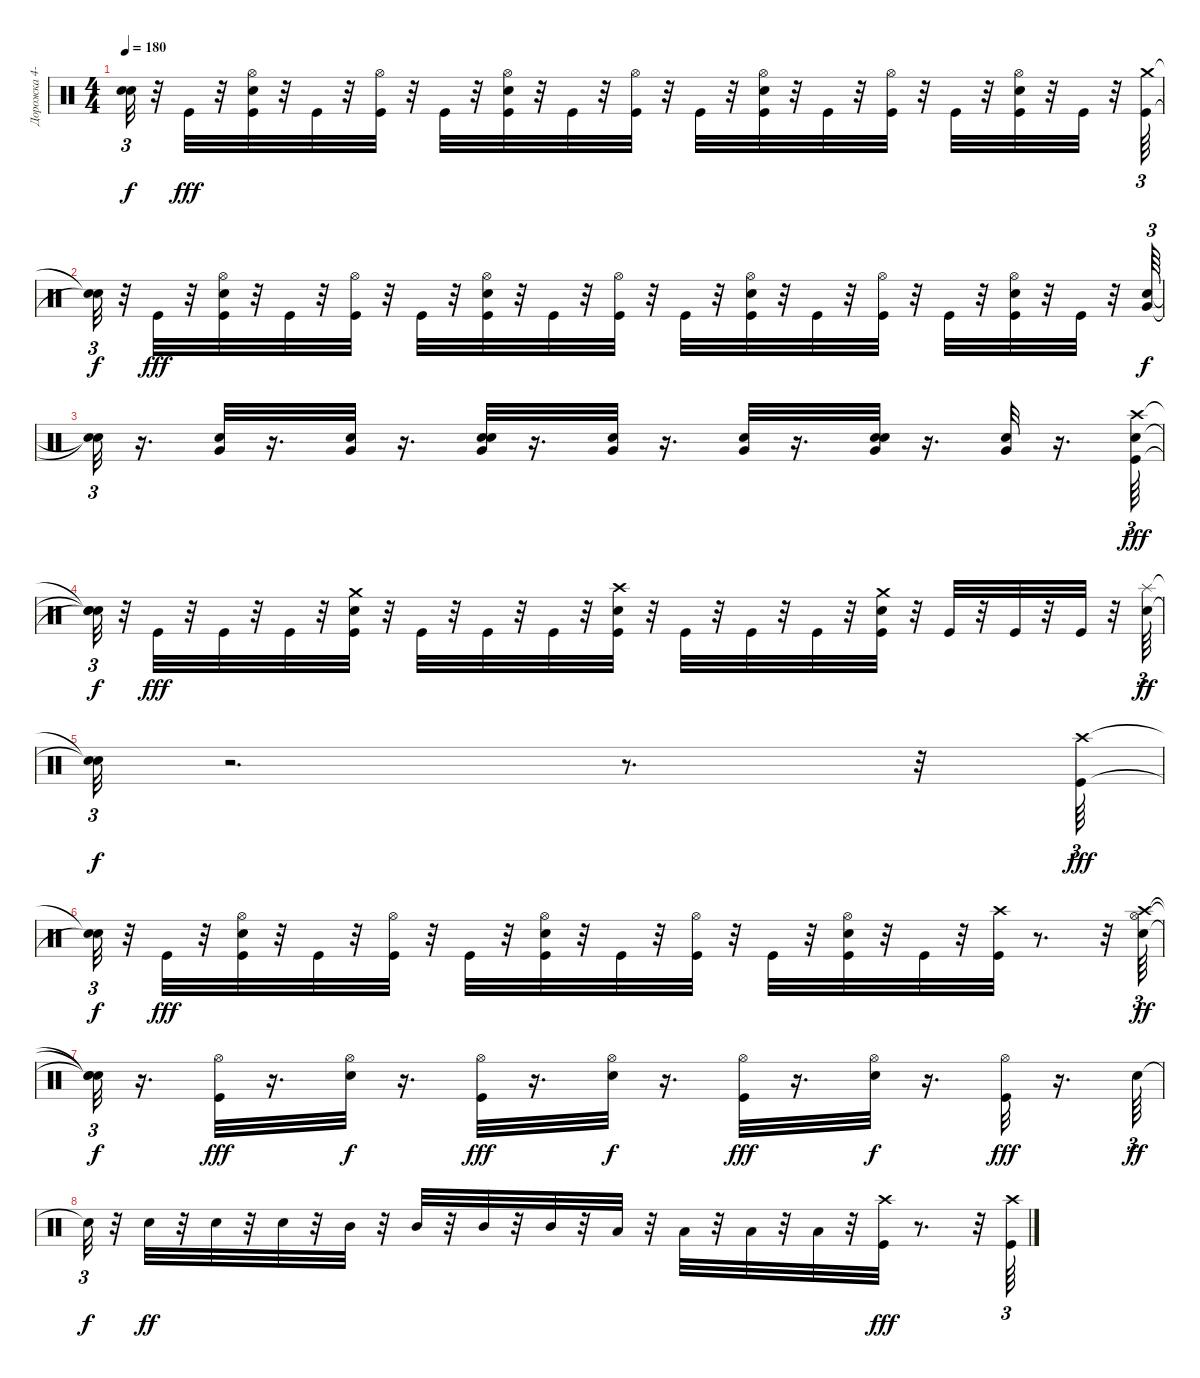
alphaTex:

\track ("Дорожка 4-10-11" "Дорожка 4-") {instrument percussion}
\staff {score}
\articulation defaults
\ts (4 4)
\tempo 180
\clef neutral
\ks c
("Snare (hit)"{t} "Snare (hit)"{t}).32{tu (3 2) dy f} r.32 "Kick (hit)".32{dy fff} r.32 ("Hi-Hat (open)" "Snare (hit) 2" "Kick (hit)").32 r.32 "Kick (hit)".32 r.32 ("Hi-Hat (open)" "Kick (hit)").32 r.32 "Kick (hit)".32 r.32 ("Snare (hit) 2" "Hi-Hat (open)" "Kick (hit)").32 r.32 "Kick (hit)".32 r.32 ("Hi-Hat (open)" "Kick (hit)").32 r.32 "Kick (hit)".32 r.32 ("Hi-Hat (open)" "Snare (hit) 2" "Kick (hit)").32 r.32 "Kick (hit)".32 r.32 ("Hi-Hat (open)" "Kick (hit)").32 r.32 "Kick (hit)".32 r.32 ("Hi-Hat (open)" "Snare (hit) 2" "Kick (hit)").32 r.32 "Kick (hit)".32 r.32 ("Crash medium (hit)" "Kick (hit)").64{tu (3 2)} |
("Snare (hit)"{t} "Snare (hit)"{t}).32{tu (3 2) dy f} r.32 "Kick (hit)".32{dy fff} r.32 ("Hi-Hat (open)" "Snare (hit) 2" "Kick (hit)").32 r.32 "Kick (hit)".32 r.32 ("Hi-Hat (open)" "Kick (hit)").32 r.32 "Kick (hit)".32 r.32 ("Snare (hit) 2" "Hi-Hat (open)" "Kick (hit)").32 r.32 "Kick (hit)".32 r.32 ("Hi-Hat (open)" "Kick (hit)").32 r.32 "Kick (hit)".32 r.32 ("Hi-Hat (open)" "Snare (hit) 2" "Kick (hit)").32 r.32 "Kick (hit)".32 r.32 ("Hi-Hat (open)" "Kick (hit)").32 r.32 "Kick (hit)".32 r.32 ("Hi-Hat (open)" "Snare (hit) 2" "Kick (hit)").32 r.32 "Kick (hit)".32 r.32 ("Very Low Tom (hit)" "Snare (hit) 2").64{tu (3 2) dy f} |
("Snare (hit)"{t} "Snare (hit)"{t}).32{tu (3 2)} r.16{d} ("Very Low Tom (hit)" "Snare (hit) 2").32 r.16{d} ("Very Low Tom (hit)" "Snare (hit) 2").32 r.16{d} ("Very Low Tom (hit)" "Snare (hit) 2" "Snare (hit) 2").32 r.16{d} ("Very Low Tom (hit)" "Snare (hit) 2").32 r.16{d} ("Very Low Tom (hit)" "Snare (hit) 2").32 r.16{d} ("Very Low Tom (hit)" "Snare (hit) 2" "Snare (hit) 2").32 r.16{d} ("Very Low Tom (hit)" "Snare (hit) 2").32 r.16{d} ("Snare (hit) 2" "Crash high (hit)" "Kick (hit)").64{tu (3 2) dy fff} |
("Snare (hit)"{t} "Snare (hit)"{t} "Snare (hit)"{t}).32{tu (3 2) dy f} r.32 "Kick (hit)".32{dy fff} r.32 "Kick (hit)".32 r.32 "Kick (hit)".32 r.32 ("Snare (hit) 2" "Crash medium (hit)" "Kick (hit)").32 r.32 "Kick (hit)".32 r.32 "Kick (hit)".32 r.32 "Kick (hit)".32 r.32 ("Snare (hit) 2" "Crash high (hit)" "Kick (hit)").32 r.32 "Kick (hit)".32 r.32 "Kick (hit)".32 r.32 "Kick (hit)".32 r.32 ("Snare (hit) 2" "Crash medium (hit)" "Kick (hit)").32 r.32 "Kick (hit)".32 r.32 "Kick (hit)".32 r.32 "Kick (hit)".32 r.32 ("Snare (hit) 2" "Splash (hit)").64{tu (3 2) dy ff} |
("Snare (hit)"{t} "Snare (hit)"{t}).32{tu (3 2) dy f} r.2{d} r.8{d} r.32 ("Crash high (hit)" "Kick (hit)").64{tu (3 2) dy fff} |
("Snare (hit)"{t} "Snare (hit)"{t}).32{tu (3 2) dy f} r.32 "Kick (hit)".32{dy fff} r.32 ("Hi-Hat (open)" "Snare (hit) 2" "Kick (hit)").32 r.32 "Kick (hit)".32 r.32 ("Hi-Hat (open)" "Kick (hit)").32 r.32 "Kick (hit)".32 r.32 ("Hi-Hat (open)" "Snare (hit) 2" "Kick (hit)").32 r.32 "Kick (hit)".32 r.32 ("Hi-Hat (open)" "Kick (hit)").32 r.32 "Kick (hit)".32 r.32 ("Hi-Hat (open)" "Snare (hit) 2" "Kick (hit)").32 r.32 "Kick (hit)".32 r.32 ("Crash high (hit)" "Kick (hit)").32 r.8{d} r.32 ("Crash high (hit)" "Hi-Hat (open)" "Snare (hit) 2").64{tu (3 2) dy ff} |
("Snare (hit)"{t} "Snare (hit)"{t} "Snare (hit)"{t}).32{tu (3 2) dy f} r.16{d} ("Hi-Hat (open)" "Kick (hit)").32{dy fff} r.16{d} ("Hi-Hat (open)" "Snare (hit) 2").32{dy f} r.16{d} ("Hi-Hat (open)" "Kick (hit)").32{dy fff} r.16{d} ("Hi-Hat (open)" "Snare (hit) 2").32{dy f} r.16{d} ("Hi-Hat (open)" "Kick (hit)").32{dy fff} r.16{d} ("Hi-Hat (open)" "Snare (hit) 2").32{dy f} r.16{d} ("Hi-Hat (open)" "Kick (hit)").32{dy fff} r.16{d} "Electric Snare (hit)".64{tu (3 2) dy ff} |
"Snare (hit)"{t}.32{tu (3 2) dy f} r.32 "Electric Snare (hit)".32{dy ff} r.32 "Electric Snare (hit)".32 r.32 "Electric Snare (hit)".32 r.32 "Mid Tom (hit)".32 r.32 "Mid Tom (hit)".32 r.32 "Mid Tom (hit)".32 r.32 "Mid Tom (hit)".32 r.32 "Low Tom (hit)".32 r.32 "Low Tom (hit)".32 r.32 "Low Tom (hit)".32 r.32 "Low Tom (hit)".32 r.32 ("Crash high (hit)" "Kick (hit)").32{dy fff} r.8{d} r.32 ("Crash high (hit)" "Kick (hit)").64{tu (3 2)}
